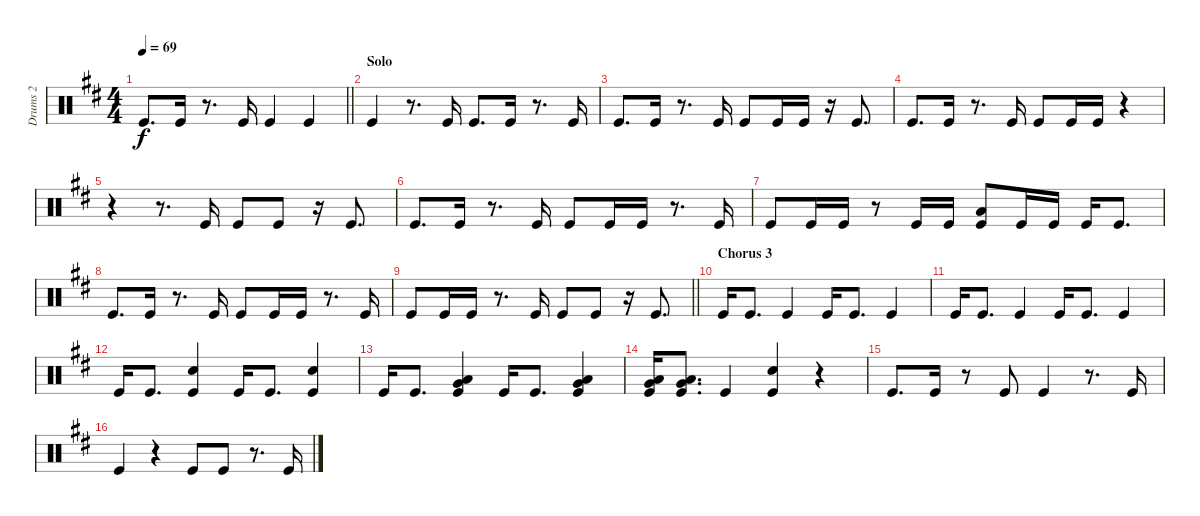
\track ("Drums 2" "Drums 2") {instrument percussion}
\staff {score}
\articulation defaults
\ts (4 4)
\tempo 69
\clef neutral
\barLineRight lightlight
\ks d "Kick (hit)".8{d dy f} "Kick (hit)".16
r.8{d} "Kick (hit)".16 "Kick (hit)".4 "Kick (hit)".4 |
\section ("" "Solo ")
"Kick (hit)".4 r.8{d} "Kick (hit)".16 "Kick (hit)".8{d} "Kick (hit)".16 r.8{d} "Kick (hit)".16 |
"Kick (hit)".8{d} "Kick (hit)".16 r.8{d} "Kick (hit)".16 "Kick (hit)".8 "Kick (hit)".16 "Kick (hit)".16 r.16 "Kick (hit)".8{d} |
"Kick (hit)".8{d} "Kick (hit)".16 r.8{d} "Kick (hit)".16 "Kick (hit)".8 "Kick (hit)".16 "Kick (hit)".16 r.4 |
r.4 r.8{d} "Kick (hit)".16 "Kick (hit)".8 "Kick (hit)".8 r.16 "Kick (hit)".8{d} |
"Kick (hit)".8{d} "Kick (hit)".16 r.8{d} "Kick (hit)".16 "Kick (hit)".8 "Kick (hit)".16 "Kick (hit)".16 r.8{d} "Kick (hit)".16 |
"Kick (hit)".8 "Kick (hit)".16 "Kick (hit)".16 r.8 "Kick (hit)".16 "Kick (hit)".16 ("Kick (hit)" "Low Tom (hit)").8 "Kick (hit)".16 "Kick (hit)".16 "Kick (hit)".16 "Kick (hit)".8{d} |
"Kick (hit)".8{d} "Kick (hit)".16 r.8{d} "Kick (hit)".16 "Kick (hit)".8 "Kick (hit)".16 "Kick (hit)".16 r.8{d} "Kick (hit)".16 |
\barLineRight lightlight "Kick (hit)".8 "Kick (hit)".16 "Kick (hit)".16
r.8{d} "Kick (hit)".16 "Kick (hit)".8 "Kick (hit)".8 r.16 "Kick (hit)".8{d} |
\section ("" "Chorus 3")
"Kick (hit)".16 "Kick (hit)".8{d} "Kick (hit)".4 "Kick (hit)".16 "Kick (hit)".8{d} "Kick (hit)".4 |
"Kick (hit)".16 "Kick (hit)".8{d} "Kick (hit)".4 "Kick (hit)".16 "Kick (hit)".8{d} "Kick (hit)".4 |
"Kick (hit)".16 "Kick (hit)".8{d} ("Kick (hit)" "Snare (hit) 2").4 "Kick (hit)".16 "Kick (hit)".8{d} ("Kick (hit)" "Snare (hit) 2").4 |
"Kick (hit)".16 "Kick (hit)".8{d} ("Kick (hit)" "Very Low Tom (hit)" "Low Tom (hit)").4 "Kick (hit)".16 "Kick (hit)".8{d} ("Kick (hit)" "Very Low Tom (hit)" "Low Tom (hit)").4 |
("Low Tom (hit)" "Very Low Tom (hit)" "Kick (hit)").16 ("Low Tom (hit)" "Very Low Tom (hit)" "Kick (hit)").8{d} "Kick (hit)".4 ("Snare (hit) 2" "Kick (hit)").4 r.4 |
"Kick (hit)".8{d} "Kick (hit)".16 r.8 "Kick (hit)".8 "Kick (hit)".4 r.8{d} "Kick (hit)".16 |
"Kick (hit)".4 r.4 "Kick (hit)".8 "Kick (hit)".8 r.8{d} "Kick (hit)".16
